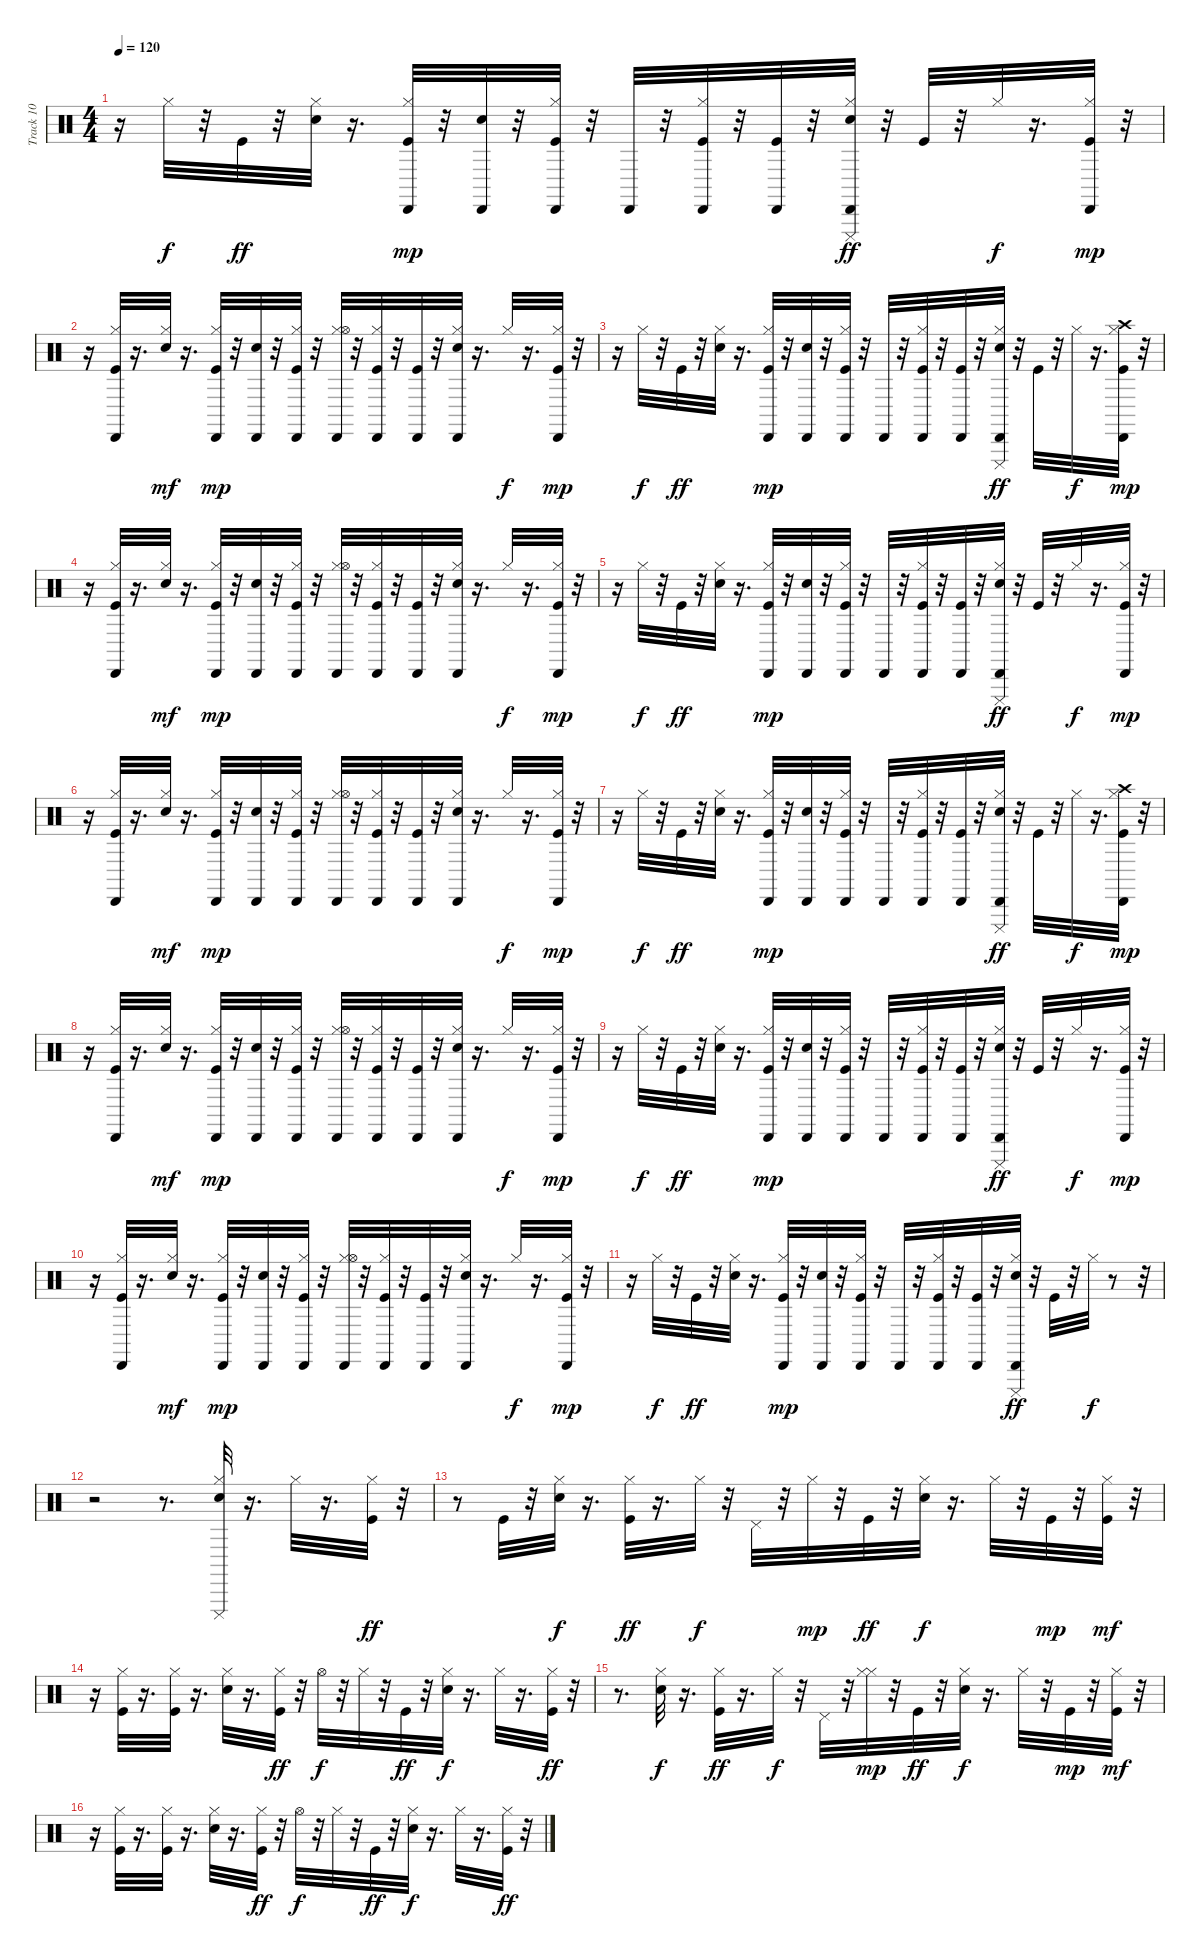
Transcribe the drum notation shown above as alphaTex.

\track ("Track 10" "Track 10") {instrument percussion}
\staff {score}
\articulation defaults
\ts (4 4)
\tempo 120
\clef neutral
\ks c
r.16{dy mp} "Hi-Hat (closed)".32{dy f} r.32 "Kick (hit)".32{dy ff} r.32 ("Electric Snare (hit)" "Hi-Hat (closed)").32 r.16{d} ("Kick (hit)" "Hi-Hat (closed)" "Cabasa (hit)").32{dy mp} r.32 ("Electric Snare (hit)" "Cabasa (hit)").32 r.32 ("Kick (hit)" "Hi-Hat (closed)" "Cabasa (hit)").32 r.32 "Cabasa (hit)".32 r.32 ("Kick (hit)" "Hi-Hat (closed)" "Cabasa (hit)").32 r.32 ("Kick (hit)" "Cabasa (hit)").32 r.32 ("Electric Snare (hit)" "Hi-Hat (closed)" "Cabasa (hit)" "Cuica (mute)").32{dy ff} r.32 "Kick (hit)".32 r.32 "Hi-Hat (closed)".32{dy f} r.16{d} ("Kick (hit)" "Hi-Hat (closed)" "Cabasa (hit)").32{dy mp} r.32 |
r.16 ("Kick (hit)" "Hi-Hat (closed)" "Cabasa (hit)").32 r.16{d} ("Electric Snare (hit)" "Hi-Hat (closed)").32{dy mf} r.16{d} ("Kick (hit)" "Hi-Hat (closed)" "Cabasa (hit)").32{dy mp} r.32 ("Electric Snare (hit)" "Cabasa (hit)").32 r.32 ("Kick (hit)" "Hi-Hat (closed)" "Cabasa (hit)").32 r.32 ("Hi-Hat (closed)" "Hi-Hat (open)" "Cabasa (hit)").32 r.32 ("Kick (hit)" "Hi-Hat (closed)" "Cabasa (hit)").32 r.32 ("Kick (hit)" "Cabasa (hit)").32 r.32 ("Electric Snare (hit)" "Hi-Hat (closed)" "Cabasa (hit)").32 r.16{d} "Hi-Hat (closed)".32{dy f} r.16{d} ("Kick (hit)" "Hi-Hat (closed)" "Cabasa (hit)").32{dy mp} r.32 |
r.16 "Hi-Hat (closed)".32{dy f} r.32 "Kick (hit)".32{dy ff} r.32 ("Electric Snare (hit)" "Hi-Hat (closed)").32 r.16{d} ("Kick (hit)" "Hi-Hat (closed)" "Cabasa (hit)").32{dy mp} r.32 ("Electric Snare (hit)" "Cabasa (hit)").32 r.32 ("Kick (hit)" "Hi-Hat (closed)" "Cabasa (hit)").32 r.32 "Cabasa (hit)".32 r.32 ("Kick (hit)" "Hi-Hat (closed)" "Cabasa (hit)").32 r.32 ("Kick (hit)" "Cabasa (hit)").32 r.32 ("Electric Snare (hit)" "Hi-Hat (closed)" "Cabasa (hit)" "Cuica (mute)").32{dy ff} r.32 "Kick (hit)".32 r.32 "Hi-Hat (closed)".32{dy f} r.16{d} ("Kick (hit)" "Hi-Hat (closed)" "Crash high (hit)" "Cabasa (hit)").32{dy mp} r.32 |
r.16 ("Kick (hit)" "Hi-Hat (closed)" "Cabasa (hit)").32 r.16{d} ("Electric Snare (hit)" "Hi-Hat (closed)").32{dy mf} r.16{d} ("Kick (hit)" "Hi-Hat (closed)" "Cabasa (hit)").32{dy mp} r.32 ("Electric Snare (hit)" "Cabasa (hit)").32 r.32 ("Kick (hit)" "Hi-Hat (closed)" "Cabasa (hit)").32 r.32 ("Hi-Hat (closed)" "Hi-Hat (open)" "Cabasa (hit)").32 r.32 ("Kick (hit)" "Hi-Hat (closed)" "Cabasa (hit)").32 r.32 ("Kick (hit)" "Cabasa (hit)").32 r.32 ("Electric Snare (hit)" "Hi-Hat (closed)" "Cabasa (hit)").32 r.16{d} "Hi-Hat (closed)".32{dy f} r.16{d} ("Kick (hit)" "Hi-Hat (closed)" "Cabasa (hit)").32{dy mp} r.32 |
r.16 "Hi-Hat (closed)".32{dy f} r.32 "Kick (hit)".32{dy ff} r.32 ("Electric Snare (hit)" "Hi-Hat (closed)").32 r.16{d} ("Kick (hit)" "Hi-Hat (closed)" "Cabasa (hit)").32{dy mp} r.32 ("Electric Snare (hit)" "Cabasa (hit)").32 r.32 ("Kick (hit)" "Hi-Hat (closed)" "Cabasa (hit)").32 r.32 "Cabasa (hit)".32 r.32 ("Kick (hit)" "Hi-Hat (closed)" "Cabasa (hit)").32 r.32 ("Kick (hit)" "Cabasa (hit)").32 r.32 ("Electric Snare (hit)" "Hi-Hat (closed)" "Cabasa (hit)" "Cuica (mute)").32{dy ff} r.32 "Kick (hit)".32 r.32 "Hi-Hat (closed)".32{dy f} r.16{d} ("Kick (hit)" "Hi-Hat (closed)" "Cabasa (hit)").32{dy mp} r.32 |
r.16 ("Kick (hit)" "Hi-Hat (closed)" "Cabasa (hit)").32 r.16{d} ("Electric Snare (hit)" "Hi-Hat (closed)").32{dy mf} r.16{d} ("Kick (hit)" "Hi-Hat (closed)" "Cabasa (hit)").32{dy mp} r.32 ("Electric Snare (hit)" "Cabasa (hit)").32 r.32 ("Kick (hit)" "Hi-Hat (closed)" "Cabasa (hit)").32 r.32 ("Hi-Hat (closed)" "Hi-Hat (open)" "Cabasa (hit)").32 r.32 ("Kick (hit)" "Hi-Hat (closed)" "Cabasa (hit)").32 r.32 ("Kick (hit)" "Cabasa (hit)").32 r.32 ("Electric Snare (hit)" "Hi-Hat (closed)" "Cabasa (hit)").32 r.16{d} "Hi-Hat (closed)".32{dy f} r.16{d} ("Kick (hit)" "Hi-Hat (closed)" "Cabasa (hit)").32{dy mp} r.32 |
r.16 "Hi-Hat (closed)".32{dy f} r.32 "Kick (hit)".32{dy ff} r.32 ("Electric Snare (hit)" "Hi-Hat (closed)").32 r.16{d} ("Kick (hit)" "Hi-Hat (closed)" "Cabasa (hit)").32{dy mp} r.32 ("Electric Snare (hit)" "Cabasa (hit)").32 r.32 ("Kick (hit)" "Hi-Hat (closed)" "Cabasa (hit)").32 r.32 "Cabasa (hit)".32 r.32 ("Kick (hit)" "Hi-Hat (closed)" "Cabasa (hit)").32 r.32 ("Kick (hit)" "Cabasa (hit)").32 r.32 ("Electric Snare (hit)" "Hi-Hat (closed)" "Cabasa (hit)" "Cuica (mute)").32{dy ff} r.32 "Kick (hit)".32 r.32 "Hi-Hat (closed)".32{dy f} r.16{d} ("Kick (hit)" "Hi-Hat (closed)" "Crash high (hit)" "Cabasa (hit)").32{dy mp} r.32 |
r.16 ("Kick (hit)" "Hi-Hat (closed)" "Cabasa (hit)").32 r.16{d} ("Electric Snare (hit)" "Hi-Hat (closed)").32{dy mf} r.16{d} ("Kick (hit)" "Hi-Hat (closed)" "Cabasa (hit)").32{dy mp} r.32 ("Electric Snare (hit)" "Cabasa (hit)").32 r.32 ("Kick (hit)" "Hi-Hat (closed)" "Cabasa (hit)").32 r.32 ("Hi-Hat (closed)" "Hi-Hat (open)" "Cabasa (hit)").32 r.32 ("Kick (hit)" "Hi-Hat (closed)" "Cabasa (hit)").32 r.32 ("Kick (hit)" "Cabasa (hit)").32 r.32 ("Electric Snare (hit)" "Hi-Hat (closed)" "Cabasa (hit)").32 r.16{d} "Hi-Hat (closed)".32{dy f} r.16{d} ("Kick (hit)" "Hi-Hat (closed)" "Cabasa (hit)").32{dy mp} r.32 |
r.16 "Hi-Hat (closed)".32{dy f} r.32 "Kick (hit)".32{dy ff} r.32 ("Electric Snare (hit)" "Hi-Hat (closed)").32 r.16{d} ("Kick (hit)" "Hi-Hat (closed)" "Cabasa (hit)").32{dy mp} r.32 ("Electric Snare (hit)" "Cabasa (hit)").32 r.32 ("Kick (hit)" "Hi-Hat (closed)" "Cabasa (hit)").32 r.32 "Cabasa (hit)".32 r.32 ("Kick (hit)" "Hi-Hat (closed)" "Cabasa (hit)").32 r.32 ("Kick (hit)" "Cabasa (hit)").32 r.32 ("Electric Snare (hit)" "Hi-Hat (closed)" "Cabasa (hit)" "Cuica (mute)").32{dy ff} r.32 "Kick (hit)".32 r.32 "Hi-Hat (closed)".32{dy f} r.16{d} ("Kick (hit)" "Hi-Hat (closed)" "Cabasa (hit)").32{dy mp} r.32 |
r.16 ("Kick (hit)" "Hi-Hat (closed)" "Cabasa (hit)").32 r.16{d} ("Electric Snare (hit)" "Hi-Hat (closed)").32{dy mf} r.16{d} ("Kick (hit)" "Hi-Hat (closed)" "Cabasa (hit)").32{dy mp} r.32 ("Electric Snare (hit)" "Cabasa (hit)").32 r.32 ("Kick (hit)" "Hi-Hat (closed)" "Cabasa (hit)").32 r.32 ("Hi-Hat (closed)" "Hi-Hat (open)" "Cabasa (hit)").32 r.32 ("Kick (hit)" "Hi-Hat (closed)" "Cabasa (hit)").32 r.32 ("Kick (hit)" "Cabasa (hit)").32 r.32 ("Electric Snare (hit)" "Hi-Hat (closed)" "Cabasa (hit)").32 r.16{d} "Hi-Hat (closed)".32{dy f} r.16{d} ("Kick (hit)" "Hi-Hat (closed)" "Cabasa (hit)").32{dy mp} r.32 |
r.16 "Hi-Hat (closed)".32{dy f} r.32 "Kick (hit)".32{dy ff} r.32 ("Electric Snare (hit)" "Hi-Hat (closed)").32 r.16{d} ("Kick (hit)" "Hi-Hat (closed)" "Cabasa (hit)").32{dy mp} r.32 ("Electric Snare (hit)" "Cabasa (hit)").32 r.32 ("Kick (hit)" "Hi-Hat (closed)" "Cabasa (hit)").32 r.32 "Cabasa (hit)".32 r.32 ("Kick (hit)" "Hi-Hat (closed)" "Cabasa (hit)").32 r.32 ("Kick (hit)" "Cabasa (hit)").32 r.32 ("Electric Snare (hit)" "Hi-Hat (closed)" "Cabasa (hit)" "Cuica (mute)").32{dy ff} r.32 "Kick (hit)".32 r.32 "Hi-Hat (closed)".32{dy f} r.8 r.32 |
r.2 r.8{d} ("Electric Snare (hit)" "Hi-Hat (closed)" "Cuica (mute)").32 r.16{d} "Hi-Hat (closed)".32 r.16{d} ("Kick (hit)" "Hi-Hat (closed)").32{dy ff} r.32 |
r.8 "Kick (hit)".32 r.32 ("Electric Snare (hit)" "Hi-Hat (closed)").32{dy f} r.16{d} ("Kick (hit)" "Hi-Hat (closed)").32{dy ff} r.16{d} "Hi-Hat (closed)".32{dy f} r.32 "Pedal Hi-Hat (hit)".32 r.32 "Hi-Hat (closed)".32{dy mp} r.32 "Kick (hit)".32{dy ff} r.32 ("Electric Snare (hit)" "Hi-Hat (closed)").32{dy f} r.16{d} "Hi-Hat (closed)".32 r.32 "Kick (hit)".32{dy mp} r.32 ("Kick (hit)" "Hi-Hat (closed)").32{dy mf} r.32 |
r.16 ("Kick (hit)" "Hi-Hat (closed)").32 r.16{d} ("Kick (hit)" "Hi-Hat (closed)").32 r.16{d} ("Electric Snare (hit)" "Hi-Hat (closed)").32 r.16{d} ("Kick (hit)" "Hi-Hat (closed)").32{dy ff} r.32 "Hi-Hat (open)".32{dy f} r.32 "Hi-Hat (closed)".32 r.32 "Kick (hit)".32{dy ff} r.32 ("Electric Snare (hit)" "Hi-Hat (closed)").32{dy f} r.16{d} "Hi-Hat (closed)".32 r.16{d} ("Kick (hit)" "Hi-Hat (closed)").32{dy ff} r.32 |
r.8{d} ("Electric Snare (hit)" "Hi-Hat (closed)").32{dy f} r.16{d} ("Kick (hit)" "Hi-Hat (closed)").32{dy ff} r.16{d} "Hi-Hat (closed)".32{dy f} r.32 "Pedal Hi-Hat (hit)".32 r.32 ("Hi-Hat (closed)" "Hi-Hat (closed)").32{dy mp} r.32 "Kick (hit)".32{dy ff} r.32 ("Electric Snare (hit)" "Hi-Hat (closed)").32{dy f} r.16{d} "Hi-Hat (closed)".32 r.32 "Kick (hit)".32{dy mp} r.32 ("Kick (hit)" "Hi-Hat (closed)").32{dy mf} r.32 |
r.16 ("Kick (hit)" "Hi-Hat (closed)").32 r.16{d} ("Kick (hit)" "Hi-Hat (closed)").32 r.16{d} ("Electric Snare (hit)" "Hi-Hat (closed)").32 r.16{d} ("Kick (hit)" "Hi-Hat (closed)").32{dy ff} r.32 "Hi-Hat (open)".32{dy f} r.32 "Hi-Hat (closed)".32 r.32 "Kick (hit)".32{dy ff} r.32 ("Electric Snare (hit)" "Hi-Hat (closed)").32{dy f} r.16{d} "Hi-Hat (closed)".32 r.16{d} ("Kick (hit)" "Hi-Hat (closed)").32{dy ff} r.32
